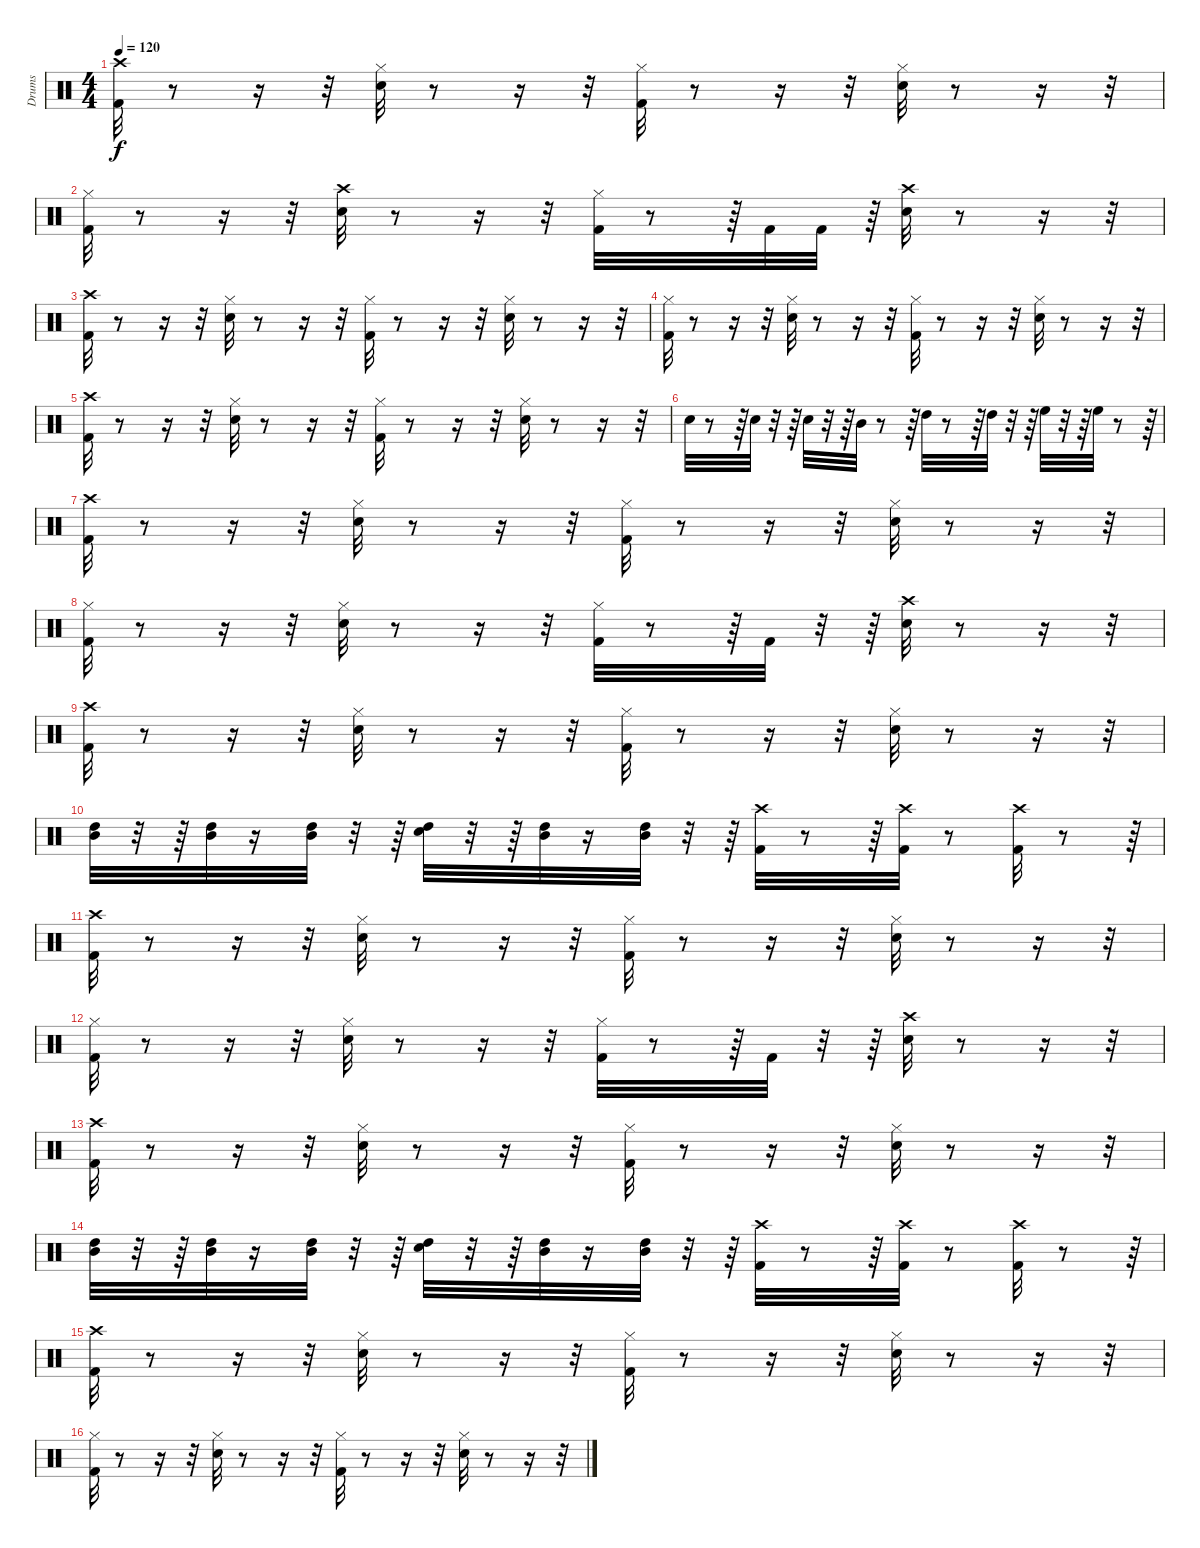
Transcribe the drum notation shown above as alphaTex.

\track ("Drums" "Drums") {instrument percussion}
\staff {score}
\articulation defaults
\ts (4 4)
\tempo 120
\clef neutral
\ks c
("Kick (hit) 2" "Crash high (hit)").32{dy f} r.8 r.16 r.32 ("Snare (hit) 2" "Hi-Hat (closed)").32 r.8 r.16 r.32 ("Kick (hit) 2" "Hi-Hat (closed)").32 r.8 r.16 r.32 ("Snare (hit) 2" "Hi-Hat (closed)").32 r.8 r.16 r.32 |
("Hi-Hat (closed)" "Kick (hit) 2").32 r.8 r.16 r.32 ("Crash high (hit)" "Snare (hit) 2").32 r.8 r.16 r.32 ("Kick (hit) 2" "Hi-Hat (closed)").32 r.8 r.64 "Kick (hit) 2".32 "Kick (hit) 2".32 r.64 ("Crash high (hit)" "Snare (hit) 2").32 r.8 r.16 r.32 |
("Kick (hit) 2" "Crash high (hit)").32 r.8 r.16 r.32 ("Snare (hit) 2" "Hi-Hat (closed)").32 r.8 r.16 r.32 ("Kick (hit) 2" "Hi-Hat (closed)").32 r.8 r.16 r.32 ("Snare (hit) 2" "Hi-Hat (closed)").32 r.8 r.16 r.32 |
("Kick (hit) 2" "Hi-Hat (closed)").32 r.8 r.16 r.32 ("Snare (hit) 2" "Hi-Hat (closed)").32 r.8 r.16 r.32 ("Kick (hit) 2" "Hi-Hat (closed)").32 r.8 r.16 r.32 ("Snare (hit) 2" "Hi-Hat (closed)").32 r.8 r.16 r.32 |
("Crash high (hit)" "Kick (hit) 2").32 r.8 r.16 r.32 ("Hi-Hat (closed)" "Snare (hit) 2").32 r.8 r.16 r.32 ("Hi-Hat (closed)" "Kick (hit) 2").32 r.8 r.16 r.32 ("Hi-Hat (closed)" "Snare (hit) 2").32 r.8 r.16 r.32 |
"Snare (hit) 2".32 r.8 r.64 "Snare (hit) 2".32 r.32 r.64 "Snare (hit) 2".32 r.32 r.64 "Mid Tom (hit)".32 r.8 r.64 "High Tom (hit)".32 r.8 r.64 "High Tom (hit)".32 r.32 r.64 "High Floor Tom (hit)".32 r.32 r.64 "High Floor Tom (hit)".32 r.8 r.64 |
("Kick (hit) 2" "Crash high (hit)").32 r.8 r.16 r.32 ("Snare (hit) 2" "Hi-Hat (closed)").32 r.8 r.16 r.32 ("Kick (hit) 2" "Hi-Hat (closed)").32 r.8 r.16 r.32 ("Snare (hit) 2" "Hi-Hat (closed)").32 r.8 r.16 r.32 |
("Hi-Hat (closed)" "Kick (hit) 2").32 r.8 r.16 r.32 ("Snare (hit) 2" "Hi-Hat (closed)").32 r.8 r.16 r.32 ("Kick (hit) 2" "Hi-Hat (closed)").32 r.8 r.64 "Kick (hit) 2".32 r.32 r.64 ("Crash high (hit)" "Snare (hit) 2").32 r.8 r.16 r.32 |
("Kick (hit) 2" "Crash high (hit)").32 r.8 r.16 r.32 ("Snare (hit) 2" "Hi-Hat (closed)").32 r.8 r.16 r.32 ("Kick (hit) 2" "Hi-Hat (closed)").32 r.8 r.16 r.32 ("Snare (hit) 2" "Hi-Hat (closed)").32 r.8 r.16 r.32 |
("High Tom (hit)" "Mid Tom (hit)").32 r.32 r.64 ("High Tom (hit)" "Mid Tom (hit)").32 r.16 ("High Tom (hit)" "Mid Tom (hit)").32 r.32 r.64 ("Snare (hit) 2" "High Tom (hit)").32 r.32 r.64 ("High Tom (hit)" "Mid Tom (hit)").32 r.16 ("High Tom (hit)" "Mid Tom (hit)").32 r.32 r.64 ("Kick (hit) 2" "Crash high (hit)").32 r.8 r.64 ("Kick (hit) 2" "Crash high (hit)").32 r.8 ("Kick (hit) 2" "Crash high (hit)").32 r.8 r.64 |
("Kick (hit) 2" "Crash high (hit)").32 r.8 r.16 r.32 ("Snare (hit) 2" "Hi-Hat (closed)").32 r.8 r.16 r.32 ("Kick (hit) 2" "Hi-Hat (closed)").32 r.8 r.16 r.32 ("Snare (hit) 2" "Hi-Hat (closed)").32 r.8 r.16 r.32 |
("Hi-Hat (closed)" "Kick (hit) 2").32 r.8 r.16 r.32 ("Snare (hit) 2" "Hi-Hat (closed)").32 r.8 r.16 r.32 ("Kick (hit) 2" "Hi-Hat (closed)").32 r.8 r.64 "Kick (hit) 2".32 r.32 r.64 ("Crash high (hit)" "Snare (hit) 2").32 r.8 r.16 r.32 |
("Kick (hit) 2" "Crash high (hit)").32 r.8 r.16 r.32 ("Snare (hit) 2" "Hi-Hat (closed)").32 r.8 r.16 r.32 ("Kick (hit) 2" "Hi-Hat (closed)").32 r.8 r.16 r.32 ("Snare (hit) 2" "Hi-Hat (closed)").32 r.8 r.16 r.32 |
("High Tom (hit)" "Mid Tom (hit)").32 r.32 r.64 ("High Tom (hit)" "Mid Tom (hit)").32 r.16 ("High Tom (hit)" "Mid Tom (hit)").32 r.32 r.64 ("Snare (hit) 2" "High Tom (hit)").32 r.32 r.64 ("High Tom (hit)" "Mid Tom (hit)").32 r.16 ("High Tom (hit)" "Mid Tom (hit)").32 r.32 r.64 ("Kick (hit) 2" "Crash high (hit)").32 r.8 r.64 ("Kick (hit) 2" "Crash high (hit)").32 r.8 ("Kick (hit) 2" "Crash high (hit)").32 r.8 r.64 |
("Kick (hit) 2" "Crash high (hit)").32 r.8 r.16 r.32 ("Snare (hit) 2" "Hi-Hat (closed)").32 r.8 r.16 r.32 ("Kick (hit) 2" "Hi-Hat (closed)").32 r.8 r.16 r.32 ("Snare (hit) 2" "Hi-Hat (closed)").32 r.8 r.16 r.32 |
("Kick (hit) 2" "Hi-Hat (closed)").32 r.8 r.16 r.32 ("Snare (hit) 2" "Hi-Hat (closed)").32 r.8 r.16 r.32 ("Kick (hit) 2" "Hi-Hat (closed)").32 r.8 r.16 r.32 ("Snare (hit) 2" "Hi-Hat (closed)").32 r.8 r.16 r.32
